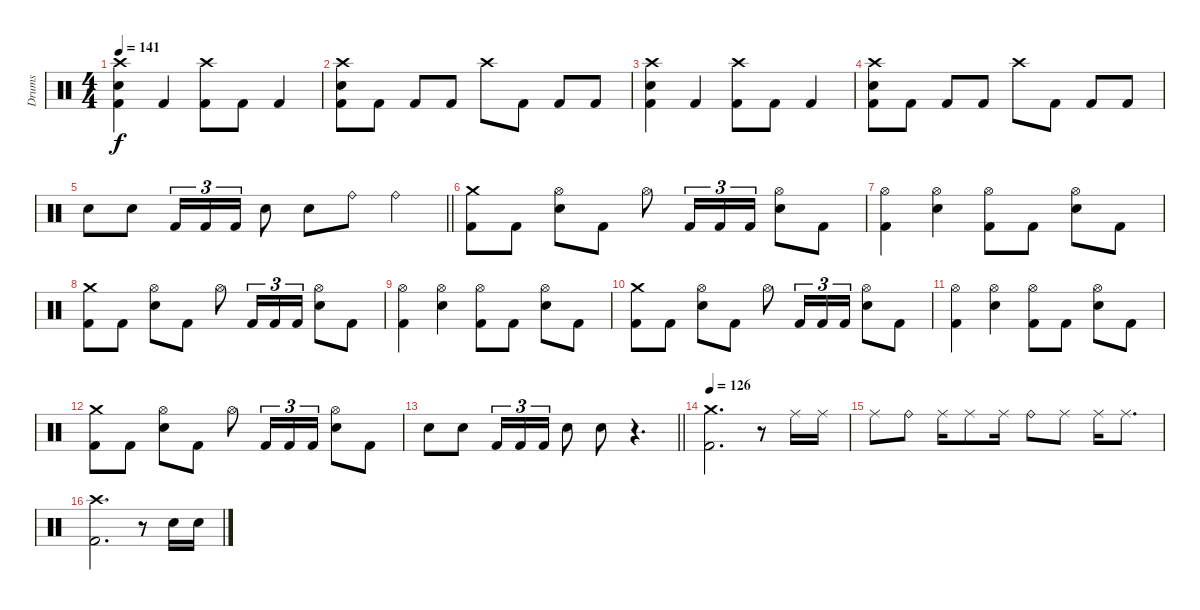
\track ("Drums" "Drums") {instrument percussion}
\staff {score}
\articulation defaults
\ts (4 4)
\tempo 141
\clef neutral
\ks c
("Crash high (hit)" "Electric Snare (hit)" "Kick (hit) 2").4{dy f} "Kick (hit) 2".4 ("Crash high (hit)" "Kick (hit) 2").8 "Kick (hit) 2".8 "Kick (hit) 2".4 |
("Crash high (hit)" "Electric Snare (hit)" "Kick (hit) 2").8 "Kick (hit) 2".8 "Kick (hit) 2".8 "Kick (hit) 2".8 "Crash high (hit)".8 "Kick (hit) 2".8 "Kick (hit) 2".8 "Kick (hit) 2".8 |
("Crash high (hit)" "Electric Snare (hit)" "Kick (hit) 2").4 "Kick (hit) 2".4 ("Crash high (hit)" "Kick (hit) 2").8 "Kick (hit) 2".8 "Kick (hit) 2".4 |
("Crash high (hit)" "Electric Snare (hit)" "Kick (hit) 2").8 "Kick (hit) 2".8 "Kick (hit) 2".8 "Kick (hit) 2".8 "Crash high (hit)".8 "Kick (hit) 2".8 "Kick (hit) 2".8 "Kick (hit) 2".8 |
\barLineRight lightlight "Electric Snare (hit)".8 "Electric Snare (hit)".8 "Kick (hit) 2".16{tu (3 2)} "Kick (hit) 2".16{tu (3 2)} "Kick (hit) 2".16{tu (3 2)} "Electric Snare (hit)".8 "Electric Snare (hit)".8 "Ride (bell)".8 "Ride (bell)".4
|
\section ("" "")
("Crash medium (hit)" "Kick (hit) 2").8 "Kick (hit) 2".8 ("Hi-Hat (open)" "Electric Snare (hit)").8 "Kick (hit) 2".8 "Hi-Hat (open)".8 "Kick (hit) 2".16{tu (3 2)} "Kick (hit) 2".16{tu (3 2)} "Kick (hit) 2".16{tu (3 2)} ("Hi-Hat (open)" "Electric Snare (hit)").8 "Kick (hit) 2".8 |
("Hi-Hat (open)" "Kick (hit) 2").4 ("Hi-Hat (open)" "Electric Snare (hit)").4 ("Hi-Hat (open)" "Kick (hit) 2").8 "Kick (hit) 2".8 ("Hi-Hat (open)" "Electric Snare (hit)").8 "Kick (hit) 2".8 |
("Crash medium (hit)" "Kick (hit) 2").8 "Kick (hit) 2".8 ("Hi-Hat (open)" "Electric Snare (hit)").8 "Kick (hit) 2".8 "Hi-Hat (open)".8 "Kick (hit) 2".16{tu (3 2)} "Kick (hit) 2".16{tu (3 2)} "Kick (hit) 2".16{tu (3 2)} ("Hi-Hat (open)" "Electric Snare (hit)").8 "Kick (hit) 2".8 |
("Hi-Hat (open)" "Kick (hit) 2").4 ("Hi-Hat (open)" "Electric Snare (hit)").4 ("Hi-Hat (open)" "Kick (hit) 2").8 "Kick (hit) 2".8 ("Hi-Hat (open)" "Electric Snare (hit)").8 "Kick (hit) 2".8 |
("Crash medium (hit)" "Kick (hit) 2").8 "Kick (hit) 2".8 ("Hi-Hat (open)" "Electric Snare (hit)").8 "Kick (hit) 2".8 "Hi-Hat (open)".8 "Kick (hit) 2".16{tu (3 2)} "Kick (hit) 2".16{tu (3 2)} "Kick (hit) 2".16{tu (3 2)} ("Hi-Hat (open)" "Electric Snare (hit)").8 "Kick (hit) 2".8 |
("Hi-Hat (open)" "Kick (hit) 2").4 ("Hi-Hat (open)" "Electric Snare (hit)").4 ("Hi-Hat (open)" "Kick (hit) 2").8 "Kick (hit) 2".8 ("Hi-Hat (open)" "Electric Snare (hit)").8 "Kick (hit) 2".8 |
("Crash medium (hit)" "Kick (hit) 2").8 "Kick (hit) 2".8 ("Hi-Hat (open)" "Electric Snare (hit)").8 "Kick (hit) 2".8 "Hi-Hat (open)".8 "Kick (hit) 2".16{tu (3 2)} "Kick (hit) 2".16{tu (3 2)} "Kick (hit) 2".16{tu (3 2)} ("Hi-Hat (open)" "Electric Snare (hit)").8 "Kick (hit) 2".8 |
\barLineRight lightlight "Electric Snare (hit)".8 "Electric Snare (hit)".8 "Kick (hit) 2".16{tu (3 2)} "Kick (hit) 2".16{tu (3 2)} "Kick (hit) 2".16{tu (3 2)} "Electric Snare (hit)".8 "Electric Snare (hit)".8
r.4{d} |
\section ("" "")
\tempo 126
("Crash medium (hit)" "Kick (hit) 2").2{d} r.8 "Ride (middle)".16 "Ride (middle)".16 |
"Ride (middle)".8 "Ride (bell)".8 "Ride (middle)".16 "Ride (middle)".8 "Ride (middle)".16 "Ride (bell)".8 "Ride (middle)".8 "Ride (middle)".16 "Ride (middle)".8{d} |
("Crash high (hit)" "Kick (hit) 2").2{d} r.8 "Electric Snare (hit)".16 "Electric Snare (hit)".16
